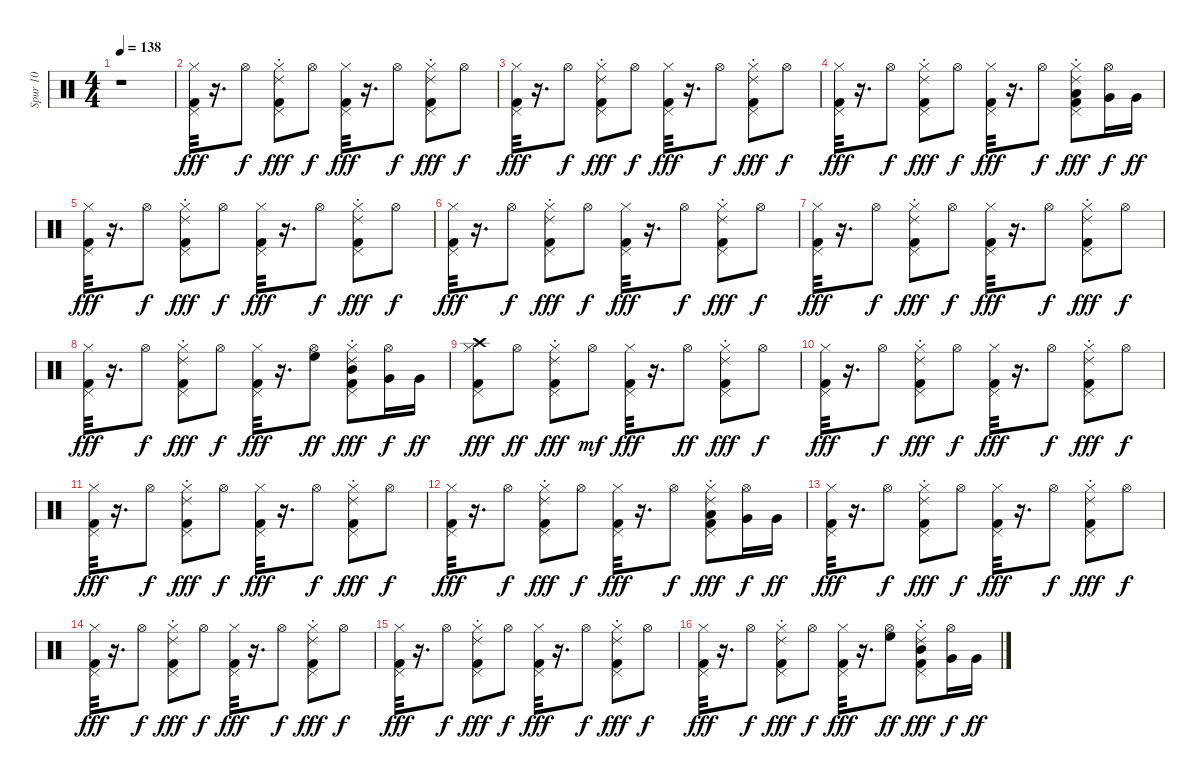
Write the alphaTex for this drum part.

\track ("Spur 10" "Spur 10") {instrument percussion}
\staff {score}
\articulation defaults
\ts (4 4)
\tempo 138
\clef neutral
\ks c
r.1{dy fff} |
("Pedal Hi-Hat (hit)" "Kick (hit) 2" "Hi-Hat (closed)").32 r.16{d} "Hi-Hat (open)".8{dy f} ("Ride (choke) 2" "Pedal Hi-Hat (hit)" "Kick (hit) 2" "Hi-Hat (closed)").8{dy fff} "Hi-Hat (open)".8{dy f} ("Pedal Hi-Hat (hit)" "Kick (hit) 2" "Hi-Hat (closed)").32{dy fff} r.16{d} "Hi-Hat (open)".8{dy f} ("Ride (choke) 2" "Pedal Hi-Hat (hit)" "Kick (hit) 2" "Hi-Hat (closed)").8{dy fff} "Hi-Hat (open)".8{dy f} |
("Pedal Hi-Hat (hit)" "Kick (hit) 2" "Hi-Hat (closed)").32{dy fff} r.16{d} "Hi-Hat (open)".8{dy f} ("Ride (choke) 2" "Pedal Hi-Hat (hit)" "Kick (hit) 2" "Hi-Hat (closed)").8{dy fff} "Hi-Hat (open)".8{dy f} ("Pedal Hi-Hat (hit)" "Kick (hit) 2" "Hi-Hat (closed)").32{dy fff} r.16{d} "Hi-Hat (open)".8{dy f} ("Ride (choke) 2" "Pedal Hi-Hat (hit)" "Kick (hit) 2" "Hi-Hat (closed)").8{dy fff} "Hi-Hat (open)".8{dy f} |
("Pedal Hi-Hat (hit)" "Kick (hit) 2" "Hi-Hat (closed)").32{dy fff} r.16{d} "Hi-Hat (open)".8{dy f} ("Ride (choke) 2" "Pedal Hi-Hat (hit)" "Kick (hit) 2" "Hi-Hat (closed)").8{dy fff} "Hi-Hat (open)".8{dy f} ("Pedal Hi-Hat (hit)" "Kick (hit) 2" "Hi-Hat (closed)").32{dy fff} r.16{d} "Hi-Hat (open)".8{dy f} ("Ride (choke) 2" "Pedal Hi-Hat (hit)" "Kick (hit) 2" "Hi-Hat (closed)" "Low Tom (hit)").8{dy fff} ("Hi-Hat (open)" "Very Low Tom (hit)").16{dy f} "Very Low Tom (hit)".16{dy ff} |
("Pedal Hi-Hat (hit)" "Kick (hit) 2" "Hi-Hat (closed)").32{dy fff} r.16{d} "Hi-Hat (open)".8{dy f} ("Ride (choke) 2" "Pedal Hi-Hat (hit)" "Kick (hit) 2" "Hi-Hat (closed)").8{dy fff} "Hi-Hat (open)".8{dy f} ("Pedal Hi-Hat (hit)" "Kick (hit) 2" "Hi-Hat (closed)").32{dy fff} r.16{d} "Hi-Hat (open)".8{dy f} ("Ride (choke) 2" "Pedal Hi-Hat (hit)" "Kick (hit) 2" "Hi-Hat (closed)").8{dy fff} "Hi-Hat (open)".8{dy f} |
("Pedal Hi-Hat (hit)" "Kick (hit) 2" "Hi-Hat (closed)").32{dy fff} r.16{d} "Hi-Hat (open)".8{dy f} ("Ride (choke) 2" "Pedal Hi-Hat (hit)" "Kick (hit) 2" "Hi-Hat (closed)").8{dy fff} "Hi-Hat (open)".8{dy f} ("Pedal Hi-Hat (hit)" "Kick (hit) 2" "Hi-Hat (closed)").32{dy fff} r.16{d} "Hi-Hat (open)".8{dy f} ("Ride (choke) 2" "Pedal Hi-Hat (hit)" "Kick (hit) 2" "Hi-Hat (closed)").8{dy fff} "Hi-Hat (open)".8{dy f} |
("Pedal Hi-Hat (hit)" "Kick (hit) 2" "Hi-Hat (closed)").32{dy fff} r.16{d} "Hi-Hat (open)".8{dy f} ("Ride (choke) 2" "Pedal Hi-Hat (hit)" "Kick (hit) 2" "Hi-Hat (closed)").8{dy fff} "Hi-Hat (open)".8{dy f} ("Pedal Hi-Hat (hit)" "Kick (hit) 2" "Hi-Hat (closed)").32{dy fff} r.16{d} "Hi-Hat (open)".8{dy f} ("Ride (choke) 2" "Pedal Hi-Hat (hit)" "Kick (hit) 2" "Hi-Hat (closed)").8{dy fff} "Hi-Hat (open)".8{dy f} |
("Pedal Hi-Hat (hit)" "Kick (hit) 2" "Hi-Hat (closed)").32{dy fff} r.16{d} "Hi-Hat (open)".8{dy f} ("Ride (choke) 2" "Pedal Hi-Hat (hit)" "Kick (hit) 2" "Hi-Hat (closed)").8{dy fff} "Hi-Hat (open)".8{dy f} ("Pedal Hi-Hat (hit)" "Kick (hit) 2" "Hi-Hat (closed)").32{dy fff} r.16{d} ("Hi-Hat (open)" "High Floor Tom (hit)").8{dy ff} ("Ride (choke) 2" "Pedal Hi-Hat (hit)" "Kick (hit) 2" "Mid Tom (hit)" "Hi-Hat (closed)").8{dy fff} ("Hi-Hat (open)" "Very Low Tom (hit)").16{dy f} "Very Low Tom (hit)".16{dy ff} |
("Crash high (hit)" "Pedal Hi-Hat (hit)" "Kick (hit) 2" "Hi-Hat (closed)").8{dy fff} "Hi-Hat (open)".8{dy ff} ("Ride (choke) 2" "Pedal Hi-Hat (hit)" "Kick (hit) 2" "Hi-Hat (closed)").8{dy fff} "Hi-Hat (open)".8{dy mf} ("Pedal Hi-Hat (hit)" "Kick (hit) 2" "Hi-Hat (closed)").32{dy fff} r.16{d} "Hi-Hat (open)".8{dy ff} ("Ride (choke) 2" "Pedal Hi-Hat (hit)" "Kick (hit) 2" "Hi-Hat (closed)").8{dy fff} "Hi-Hat (open)".8{dy f} |
("Pedal Hi-Hat (hit)" "Kick (hit) 2" "Hi-Hat (closed)").32{dy fff} r.16{d} "Hi-Hat (open)".8{dy f} ("Ride (choke) 2" "Pedal Hi-Hat (hit)" "Kick (hit) 2" "Hi-Hat (closed)").8{dy fff} "Hi-Hat (open)".8{dy f} ("Pedal Hi-Hat (hit)" "Kick (hit) 2" "Hi-Hat (closed)").32{dy fff} r.16{d} "Hi-Hat (open)".8{dy f} ("Ride (choke) 2" "Pedal Hi-Hat (hit)" "Kick (hit) 2" "Hi-Hat (closed)").8{dy fff} "Hi-Hat (open)".8{dy f} |
("Pedal Hi-Hat (hit)" "Kick (hit) 2" "Hi-Hat (closed)").32{dy fff} r.16{d} "Hi-Hat (open)".8{dy f} ("Ride (choke) 2" "Pedal Hi-Hat (hit)" "Kick (hit) 2" "Hi-Hat (closed)").8{dy fff} "Hi-Hat (open)".8{dy f} ("Pedal Hi-Hat (hit)" "Kick (hit) 2" "Hi-Hat (closed)").32{dy fff} r.16{d} "Hi-Hat (open)".8{dy f} ("Ride (choke) 2" "Pedal Hi-Hat (hit)" "Kick (hit) 2" "Hi-Hat (closed)").8{dy fff} "Hi-Hat (open)".8{dy f} |
("Pedal Hi-Hat (hit)" "Kick (hit) 2" "Hi-Hat (closed)").32{dy fff} r.16{d} "Hi-Hat (open)".8{dy f} ("Ride (choke) 2" "Pedal Hi-Hat (hit)" "Kick (hit) 2" "Hi-Hat (closed)").8{dy fff} "Hi-Hat (open)".8{dy f} ("Pedal Hi-Hat (hit)" "Kick (hit) 2" "Hi-Hat (closed)").32{dy fff} r.16{d} "Hi-Hat (open)".8{dy f} ("Ride (choke) 2" "Pedal Hi-Hat (hit)" "Kick (hit) 2" "Hi-Hat (closed)" "Low Tom (hit)").8{dy fff} ("Hi-Hat (open)" "Very Low Tom (hit)").16{dy f} "Very Low Tom (hit)".16{dy ff} |
("Pedal Hi-Hat (hit)" "Kick (hit) 2" "Hi-Hat (closed)").32{dy fff} r.16{d} "Hi-Hat (open)".8{dy f} ("Ride (choke) 2" "Pedal Hi-Hat (hit)" "Kick (hit) 2" "Hi-Hat (closed)").8{dy fff} "Hi-Hat (open)".8{dy f} ("Pedal Hi-Hat (hit)" "Kick (hit) 2" "Hi-Hat (closed)").32{dy fff} r.16{d} "Hi-Hat (open)".8{dy f} ("Ride (choke) 2" "Pedal Hi-Hat (hit)" "Kick (hit) 2" "Hi-Hat (closed)").8{dy fff} "Hi-Hat (open)".8{dy f} |
("Pedal Hi-Hat (hit)" "Kick (hit) 2" "Hi-Hat (closed)").32{dy fff} r.16{d} "Hi-Hat (open)".8{dy f} ("Ride (choke) 2" "Pedal Hi-Hat (hit)" "Kick (hit) 2" "Hi-Hat (closed)").8{dy fff} "Hi-Hat (open)".8{dy f} ("Pedal Hi-Hat (hit)" "Kick (hit) 2" "Hi-Hat (closed)").32{dy fff} r.16{d} "Hi-Hat (open)".8{dy f} ("Ride (choke) 2" "Pedal Hi-Hat (hit)" "Kick (hit) 2" "Hi-Hat (closed)").8{dy fff} "Hi-Hat (open)".8{dy f} |
("Pedal Hi-Hat (hit)" "Kick (hit) 2" "Hi-Hat (closed)").32{dy fff} r.16{d} "Hi-Hat (open)".8{dy f} ("Ride (choke) 2" "Pedal Hi-Hat (hit)" "Kick (hit) 2" "Hi-Hat (closed)").8{dy fff} "Hi-Hat (open)".8{dy f} ("Pedal Hi-Hat (hit)" "Kick (hit) 2" "Hi-Hat (closed)").32{dy fff} r.16{d} "Hi-Hat (open)".8{dy f} ("Ride (choke) 2" "Pedal Hi-Hat (hit)" "Kick (hit) 2" "Hi-Hat (closed)").8{dy fff} "Hi-Hat (open)".8{dy f} |
("Pedal Hi-Hat (hit)" "Kick (hit) 2" "Hi-Hat (closed)").32{dy fff} r.16{d} "Hi-Hat (open)".8{dy f} ("Ride (choke) 2" "Pedal Hi-Hat (hit)" "Kick (hit) 2" "Hi-Hat (closed)").8{dy fff} "Hi-Hat (open)".8{dy f} ("Pedal Hi-Hat (hit)" "Kick (hit) 2" "Hi-Hat (closed)").32{dy fff} r.16{d} ("Hi-Hat (open)" "High Floor Tom (hit)").8{dy ff} ("Ride (choke) 2" "Pedal Hi-Hat (hit)" "Kick (hit) 2" "Mid Tom (hit)" "Hi-Hat (closed)").8{dy fff} ("Hi-Hat (open)" "Very Low Tom (hit)").16{dy f} "Very Low Tom (hit)".16{dy ff}
